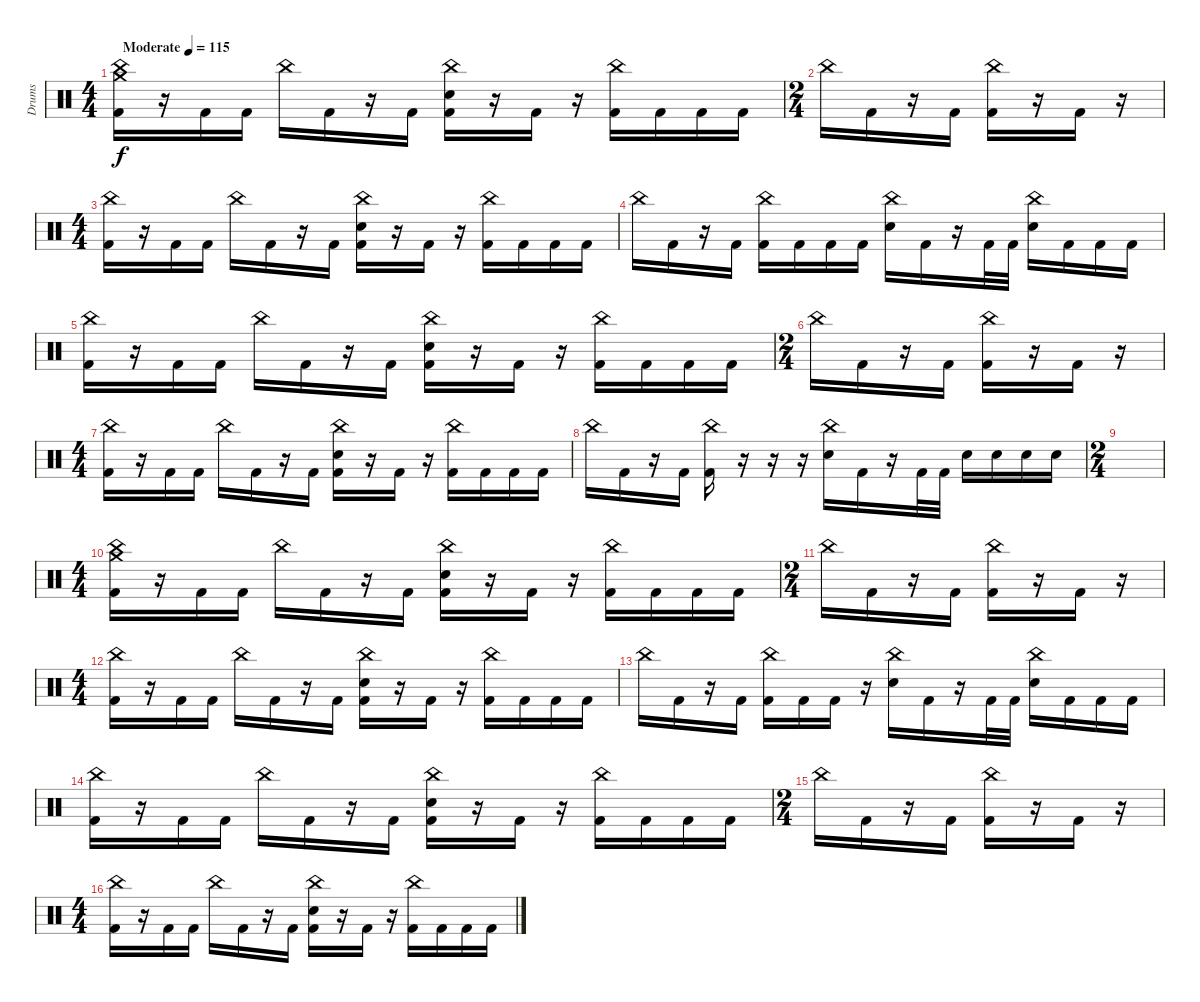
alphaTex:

\track ("Drums" "Drums") {instrument percussion}
\staff {score}
\articulation defaults
\ts (4 4)
\tempo (115 "Moderate")
\clef neutral
\ks c
("Crash medium (hit)" "China (hit)" "Kick (hit) 2").16{dy f} r.16 "Kick (hit) 2".16 "Kick (hit) 2".16 "China (hit)".16 "Kick (hit) 2".16 r.16 "Kick (hit) 2".16 ("China (hit)" "Electric Snare (hit)" "Kick (hit) 2").16 r.16 "Kick (hit) 2".16 r.16 ("China (hit)" "Kick (hit) 2").16 "Kick (hit) 2".16 "Kick (hit) 2".16 "Kick (hit) 2".16 |
\ts (2 4)
"China (hit)".16 "Kick (hit) 2".16 r.16 "Kick (hit) 2".16 ("China (hit)" "Kick (hit) 2").16 r.16 "Kick (hit) 2".16 r.16 |
\ts (4 4)
("China (hit)" "Kick (hit) 2").16 r.16 "Kick (hit) 2".16 "Kick (hit) 2".16 "China (hit)".16 "Kick (hit) 2".16 r.16 "Kick (hit) 2".16 ("China (hit)" "Electric Snare (hit)" "Kick (hit) 2").16 r.16 "Kick (hit) 2".16 r.16 ("China (hit)" "Kick (hit) 2").16 "Kick (hit) 2".16 "Kick (hit) 2".16 "Kick (hit) 2".16 |
"China (hit)".16 "Kick (hit) 2".16 r.16 "Kick (hit) 2".16 ("China (hit)" "Kick (hit) 2").16 "Kick (hit) 2".16 "Kick (hit) 2".16 "Kick (hit) 2".16 ("China (hit)" "Electric Snare (hit)").16 "Kick (hit) 2".16 r.16 "Kick (hit) 2".32 "Kick (hit) 2".32 ("China (hit)" "Electric Snare (hit)").16 "Kick (hit) 2".16 "Kick (hit) 2".16 "Kick (hit) 2".16 |
("China (hit)" "Kick (hit) 2").16 r.16 "Kick (hit) 2".16 "Kick (hit) 2".16 "China (hit)".16 "Kick (hit) 2".16 r.16 "Kick (hit) 2".16 ("China (hit)" "Electric Snare (hit)" "Kick (hit) 2").16 r.16 "Kick (hit) 2".16 r.16 ("China (hit)" "Kick (hit) 2").16 "Kick (hit) 2".16 "Kick (hit) 2".16 "Kick (hit) 2".16 |
\ts (2 4)
"China (hit)".16 "Kick (hit) 2".16 r.16 "Kick (hit) 2".16 ("China (hit)" "Kick (hit) 2").16 r.16 "Kick (hit) 2".16 r.16 |
\ts (4 4)
("China (hit)" "Kick (hit) 2").16 r.16 "Kick (hit) 2".16 "Kick (hit) 2".16 "China (hit)".16 "Kick (hit) 2".16 r.16 "Kick (hit) 2".16 ("China (hit)" "Electric Snare (hit)" "Kick (hit) 2").16 r.16 "Kick (hit) 2".16 r.16 ("China (hit)" "Kick (hit) 2").16 "Kick (hit) 2".16 "Kick (hit) 2".16 "Kick (hit) 2".16 |
"China (hit)".16 "Kick (hit) 2".16 r.16 "Kick (hit) 2".16 ("China (hit)" "Kick (hit) 2").16 r.16 r.16 r.16 ("China (hit)" "Electric Snare (hit)").16 "Kick (hit) 2".16 r.16 "Kick (hit) 2".32 "Kick (hit) 2".32 "Electric Snare (hit)".16 "Electric Snare (hit)".16 "Electric Snare (hit)".16 "Electric Snare (hit)".16 |
\ts (2 4)
|
\ts (4 4)
("Crash medium (hit)" "China (hit)" "Kick (hit) 2").16 r.16 "Kick (hit) 2".16 "Kick (hit) 2".16 "China (hit)".16 "Kick (hit) 2".16 r.16 "Kick (hit) 2".16 ("China (hit)" "Electric Snare (hit)" "Kick (hit) 2").16 r.16 "Kick (hit) 2".16 r.16 ("China (hit)" "Kick (hit) 2").16 "Kick (hit) 2".16 "Kick (hit) 2".16 "Kick (hit) 2".16 |
\ts (2 4)
"China (hit)".16 "Kick (hit) 2".16 r.16 "Kick (hit) 2".16 ("China (hit)" "Kick (hit) 2").16 r.16 "Kick (hit) 2".16 r.16 |
\ts (4 4)
("China (hit)" "Kick (hit) 2").16 r.16 "Kick (hit) 2".16 "Kick (hit) 2".16 "China (hit)".16 "Kick (hit) 2".16 r.16 "Kick (hit) 2".16 ("China (hit)" "Electric Snare (hit)" "Kick (hit) 2").16 r.16 "Kick (hit) 2".16 r.16 ("China (hit)" "Kick (hit) 2").16 "Kick (hit) 2".16 "Kick (hit) 2".16 "Kick (hit) 2".16 |
"China (hit)".16 "Kick (hit) 2".16 r.16 "Kick (hit) 2".16 ("China (hit)" "Kick (hit) 2").16 "Kick (hit) 2".16 "Kick (hit) 2".16 r.16 ("China (hit)" "Electric Snare (hit)").16 "Kick (hit) 2".16 r.16 "Kick (hit) 2".32 "Kick (hit) 2".32 ("China (hit)" "Electric Snare (hit)").16 "Kick (hit) 2".16 "Kick (hit) 2".16 "Kick (hit) 2".16 |
("China (hit)" "Kick (hit) 2").16 r.16 "Kick (hit) 2".16 "Kick (hit) 2".16 "China (hit)".16 "Kick (hit) 2".16 r.16 "Kick (hit) 2".16 ("China (hit)" "Electric Snare (hit)" "Kick (hit) 2").16 r.16 "Kick (hit) 2".16 r.16 ("China (hit)" "Kick (hit) 2").16 "Kick (hit) 2".16 "Kick (hit) 2".16 "Kick (hit) 2".16 |
\ts (2 4)
"China (hit)".16 "Kick (hit) 2".16 r.16 "Kick (hit) 2".16 ("China (hit)" "Kick (hit) 2").16 r.16 "Kick (hit) 2".16 r.16 |
\ts (4 4)
("China (hit)" "Kick (hit) 2").16 r.16 "Kick (hit) 2".16 "Kick (hit) 2".16 "China (hit)".16 "Kick (hit) 2".16 r.16 "Kick (hit) 2".16 ("China (hit)" "Electric Snare (hit)" "Kick (hit) 2").16 r.16 "Kick (hit) 2".16 r.16 ("China (hit)" "Kick (hit) 2").16 "Kick (hit) 2".16 "Kick (hit) 2".16 "Kick (hit) 2".16
